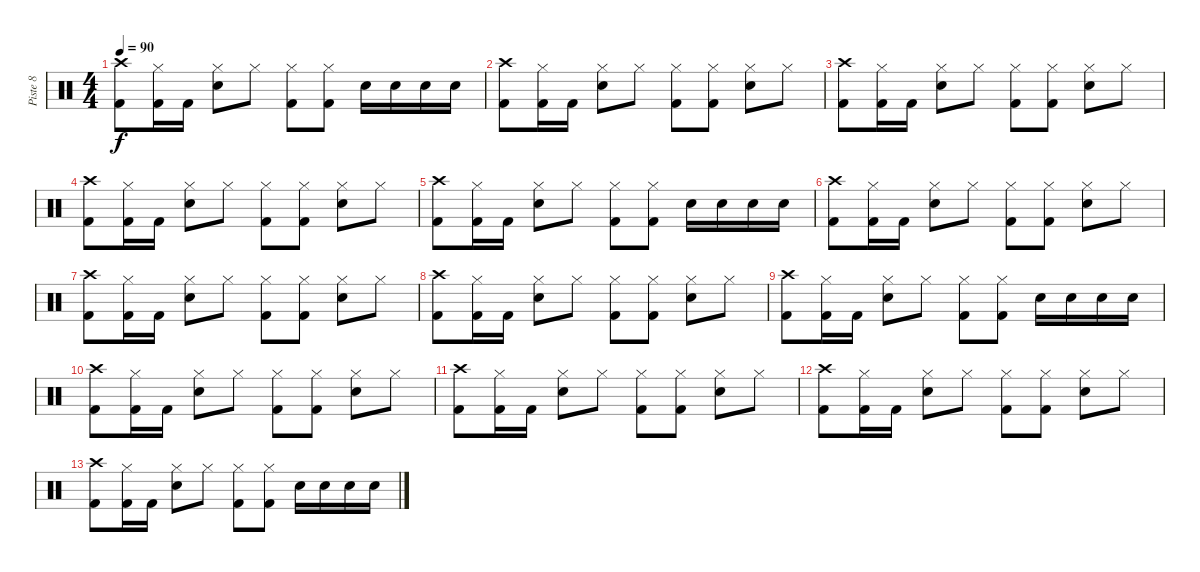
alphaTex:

\track ("Piste 8" "Piste 8") {instrument percussion}
\staff {score}
\articulation defaults
\ts (4 4)
\tempo 90
\clef neutral
\ks c
("Crash high (hit)" "Kick (hit) 2").8{dy f} ("Hi-Hat (closed)" "Kick (hit) 2").16 "Kick (hit) 2".16 ("Hi-Hat (closed)" "Snare (hit) 2").8 "Hi-Hat (closed)".8 ("Hi-Hat (closed)" "Kick (hit) 2").8 ("Hi-Hat (closed)" "Kick (hit) 2").8 "Snare (hit) 2".16 "Snare (hit) 2".16 "Snare (hit) 2".16 "Snare (hit) 2".16 |
("Crash high (hit)" "Kick (hit) 2").8 ("Hi-Hat (closed)" "Kick (hit) 2").16 "Kick (hit) 2".16 ("Hi-Hat (closed)" "Snare (hit) 2").8 "Hi-Hat (closed)".8 ("Hi-Hat (closed)" "Kick (hit) 2").8 ("Hi-Hat (closed)" "Kick (hit) 2").8 ("Hi-Hat (closed)" "Snare (hit) 2").8 "Hi-Hat (closed)".8 |
("Crash high (hit)" "Kick (hit) 2").8 ("Hi-Hat (closed)" "Kick (hit) 2").16 "Kick (hit) 2".16 ("Hi-Hat (closed)" "Snare (hit) 2").8 "Hi-Hat (closed)".8 ("Hi-Hat (closed)" "Kick (hit) 2").8 ("Hi-Hat (closed)" "Kick (hit) 2").8 ("Hi-Hat (closed)" "Snare (hit) 2").8 "Hi-Hat (closed)".8 |
("Crash high (hit)" "Kick (hit) 2").8 ("Hi-Hat (closed)" "Kick (hit) 2").16 "Kick (hit) 2".16 ("Hi-Hat (closed)" "Snare (hit) 2").8 "Hi-Hat (closed)".8 ("Hi-Hat (closed)" "Kick (hit) 2").8 ("Hi-Hat (closed)" "Kick (hit) 2").8 ("Hi-Hat (closed)" "Snare (hit) 2").8 "Hi-Hat (closed)".8 |
("Crash high (hit)" "Kick (hit) 2").8 ("Hi-Hat (closed)" "Kick (hit) 2").16 "Kick (hit) 2".16 ("Hi-Hat (closed)" "Snare (hit) 2").8 "Hi-Hat (closed)".8 ("Hi-Hat (closed)" "Kick (hit) 2").8 ("Hi-Hat (closed)" "Kick (hit) 2").8 "Snare (hit) 2".16 "Snare (hit) 2".16 "Snare (hit) 2".16 "Snare (hit) 2".16 |
("Crash high (hit)" "Kick (hit) 2").8 ("Hi-Hat (closed)" "Kick (hit) 2").16 "Kick (hit) 2".16 ("Hi-Hat (closed)" "Snare (hit) 2").8 "Hi-Hat (closed)".8 ("Hi-Hat (closed)" "Kick (hit) 2").8 ("Hi-Hat (closed)" "Kick (hit) 2").8 ("Hi-Hat (closed)" "Snare (hit) 2").8 "Hi-Hat (closed)".8 |
("Crash high (hit)" "Kick (hit) 2").8 ("Hi-Hat (closed)" "Kick (hit) 2").16 "Kick (hit) 2".16 ("Hi-Hat (closed)" "Snare (hit) 2").8 "Hi-Hat (closed)".8 ("Hi-Hat (closed)" "Kick (hit) 2").8 ("Hi-Hat (closed)" "Kick (hit) 2").8 ("Hi-Hat (closed)" "Snare (hit) 2").8 "Hi-Hat (closed)".8 |
("Crash high (hit)" "Kick (hit) 2").8 ("Hi-Hat (closed)" "Kick (hit) 2").16 "Kick (hit) 2".16 ("Hi-Hat (closed)" "Snare (hit) 2").8 "Hi-Hat (closed)".8 ("Hi-Hat (closed)" "Kick (hit) 2").8 ("Hi-Hat (closed)" "Kick (hit) 2").8 ("Hi-Hat (closed)" "Snare (hit) 2").8 "Hi-Hat (closed)".8 |
("Crash high (hit)" "Kick (hit) 2").8 ("Hi-Hat (closed)" "Kick (hit) 2").16 "Kick (hit) 2".16 ("Hi-Hat (closed)" "Snare (hit) 2").8 "Hi-Hat (closed)".8 ("Hi-Hat (closed)" "Kick (hit) 2").8 ("Hi-Hat (closed)" "Kick (hit) 2").8 "Snare (hit) 2".16 "Snare (hit) 2".16 "Snare (hit) 2".16 "Snare (hit) 2".16 |
("Crash high (hit)" "Kick (hit) 2").8 ("Hi-Hat (closed)" "Kick (hit) 2").16 "Kick (hit) 2".16 ("Hi-Hat (closed)" "Snare (hit) 2").8 "Hi-Hat (closed)".8 ("Hi-Hat (closed)" "Kick (hit) 2").8 ("Hi-Hat (closed)" "Kick (hit) 2").8 ("Hi-Hat (closed)" "Snare (hit) 2").8 "Hi-Hat (closed)".8 |
("Crash high (hit)" "Kick (hit) 2").8 ("Hi-Hat (closed)" "Kick (hit) 2").16 "Kick (hit) 2".16 ("Hi-Hat (closed)" "Snare (hit) 2").8 "Hi-Hat (closed)".8 ("Hi-Hat (closed)" "Kick (hit) 2").8 ("Hi-Hat (closed)" "Kick (hit) 2").8 ("Hi-Hat (closed)" "Snare (hit) 2").8 "Hi-Hat (closed)".8 |
("Crash high (hit)" "Kick (hit) 2").8 ("Hi-Hat (closed)" "Kick (hit) 2").16 "Kick (hit) 2".16 ("Hi-Hat (closed)" "Snare (hit) 2").8 "Hi-Hat (closed)".8 ("Hi-Hat (closed)" "Kick (hit) 2").8 ("Hi-Hat (closed)" "Kick (hit) 2").8 ("Hi-Hat (closed)" "Snare (hit) 2").8 "Hi-Hat (closed)".8 |
("Crash high (hit)" "Kick (hit) 2").8 ("Hi-Hat (closed)" "Kick (hit) 2").16 "Kick (hit) 2".16 ("Hi-Hat (closed)" "Snare (hit) 2").8 "Hi-Hat (closed)".8 ("Hi-Hat (closed)" "Kick (hit) 2").8 ("Hi-Hat (closed)" "Kick (hit) 2").8 "Snare (hit) 2".16 "Snare (hit) 2".16 "Snare (hit) 2".16 "Snare (hit) 2".16
